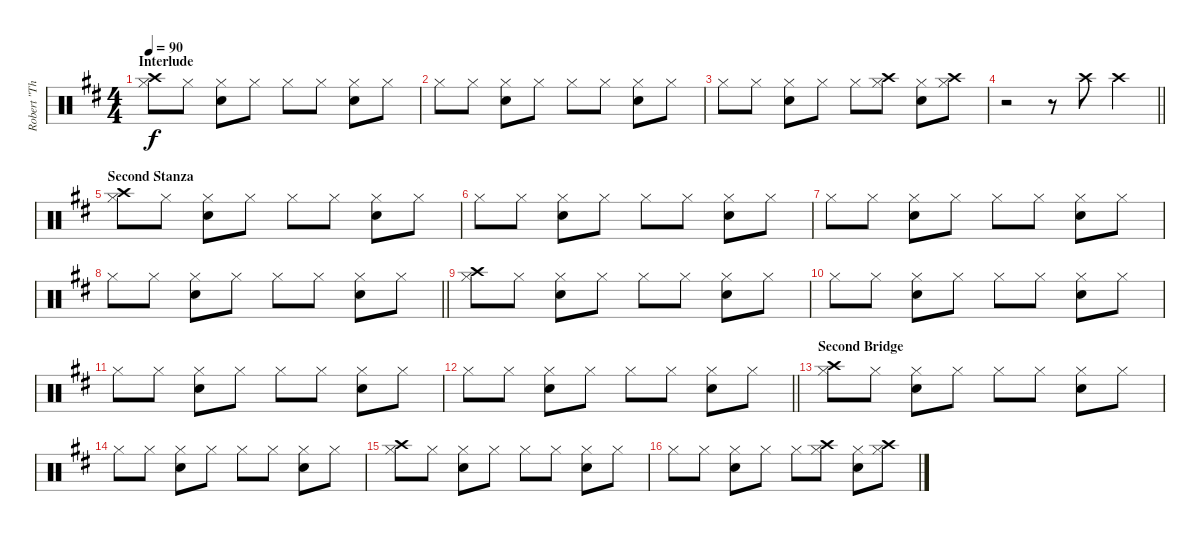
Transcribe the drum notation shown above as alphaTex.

\track ("Robert \"The Visual Timekeeper\" Sweet [Dr" "Robert \"Th") {instrument percussion}
\staff {score}
\articulation defaults
\ts (4 4)
\section ("" "Interlude")
\tempo 90
\clef neutral
\ks d
("Crash high (hit)" "Hi-Hat (closed)").8{dy f} "Hi-Hat (closed)".8 ("Hi-Hat (closed)" "Snare (hit) 2").8 "Hi-Hat (closed)".8 "Hi-Hat (closed)".8 "Hi-Hat (closed)".8 ("Hi-Hat (closed)" "Snare (hit) 2").8 "Hi-Hat (closed)".8 |
"Hi-Hat (closed)".8 "Hi-Hat (closed)".8 ("Hi-Hat (closed)" "Snare (hit) 2").8 "Hi-Hat (closed)".8 "Hi-Hat (closed)".8 "Hi-Hat (closed)".8 ("Hi-Hat (closed)" "Snare (hit) 2").8 "Hi-Hat (closed)".8 |
"Hi-Hat (closed)".8 "Hi-Hat (closed)".8 ("Hi-Hat (closed)" "Snare (hit) 2").8 "Hi-Hat (closed)".8 "Hi-Hat (closed)".8 ("Hi-Hat (closed)" "Crash high (hit)").8 ("Hi-Hat (closed)" "Snare (hit) 2").8 ("Hi-Hat (closed)" "Crash high (hit)").8 |
\barLineRight lightlight
r.2 r.8 "Crash high (hit)".8 "Crash high (hit)".4 |
\section ("" "Second Stanza")
("Hi-Hat (closed)" "Crash high (hit)").8 "Hi-Hat (closed)".8 ("Hi-Hat (closed)" "Snare (hit) 2").8 "Hi-Hat (closed)".8 "Hi-Hat (closed)".8 "Hi-Hat (closed)".8 ("Hi-Hat (closed)" "Snare (hit) 2").8 "Hi-Hat (closed)".8 |
"Hi-Hat (closed)".8 "Hi-Hat (closed)".8 ("Hi-Hat (closed)" "Snare (hit) 2").8 "Hi-Hat (closed)".8 "Hi-Hat (closed)".8 "Hi-Hat (closed)".8 ("Hi-Hat (closed)" "Snare (hit) 2").8 "Hi-Hat (closed)".8 |
"Hi-Hat (closed)".8 "Hi-Hat (closed)".8 ("Hi-Hat (closed)" "Snare (hit) 2").8 "Hi-Hat (closed)".8 "Hi-Hat (closed)".8 "Hi-Hat (closed)".8 ("Hi-Hat (closed)" "Snare (hit) 2").8 "Hi-Hat (closed)".8 |
\barLineRight lightlight "Hi-Hat (closed)".8 "Hi-Hat (closed)".8
("Hi-Hat (closed)" "Snare (hit) 2").8 "Hi-Hat (closed)".8 "Hi-Hat (closed)".8 "Hi-Hat (closed)".8 ("Hi-Hat (closed)" "Snare (hit) 2").8 "Hi-Hat (closed)".8 |
("Hi-Hat (closed)" "Crash high (hit)").8 "Hi-Hat (closed)".8 ("Hi-Hat (closed)" "Snare (hit) 2").8 "Hi-Hat (closed)".8 "Hi-Hat (closed)".8 "Hi-Hat (closed)".8 ("Hi-Hat (closed)" "Snare (hit) 2").8 "Hi-Hat (closed)".8 |
"Hi-Hat (closed)".8 "Hi-Hat (closed)".8 ("Hi-Hat (closed)" "Snare (hit) 2").8 "Hi-Hat (closed)".8 "Hi-Hat (closed)".8 "Hi-Hat (closed)".8 ("Hi-Hat (closed)" "Snare (hit) 2").8 "Hi-Hat (closed)".8 |
"Hi-Hat (closed)".8 "Hi-Hat (closed)".8 ("Hi-Hat (closed)" "Snare (hit) 2").8 "Hi-Hat (closed)".8 "Hi-Hat (closed)".8 "Hi-Hat (closed)".8 ("Hi-Hat (closed)" "Snare (hit) 2").8 "Hi-Hat (closed)".8 |
\barLineRight lightlight "Hi-Hat (closed)".8 "Hi-Hat (closed)".8
("Hi-Hat (closed)" "Snare (hit) 2").8 "Hi-Hat (closed)".8 "Hi-Hat (closed)".8 "Hi-Hat (closed)".8 ("Hi-Hat (closed)" "Snare (hit) 2").8 "Hi-Hat (closed)".8 |
\section ("" "Second Bridge")
("Crash high (hit)" "Hi-Hat (closed)").8 "Hi-Hat (closed)".8 ("Hi-Hat (closed)" "Snare (hit) 2").8 "Hi-Hat (closed)".8 "Hi-Hat (closed)".8 "Hi-Hat (closed)".8 ("Hi-Hat (closed)" "Snare (hit) 2").8 "Hi-Hat (closed)".8 |
"Hi-Hat (closed)".8 "Hi-Hat (closed)".8 ("Hi-Hat (closed)" "Snare (hit) 2").8 "Hi-Hat (closed)".8 "Hi-Hat (closed)".8 "Hi-Hat (closed)".8 ("Hi-Hat (closed)" "Snare (hit) 2").8 "Hi-Hat (closed)".8 |
("Hi-Hat (closed)" "Crash high (hit)").8 "Hi-Hat (closed)".8 ("Hi-Hat (closed)" "Snare (hit) 2").8 "Hi-Hat (closed)".8 "Hi-Hat (closed)".8 "Hi-Hat (closed)".8 ("Hi-Hat (closed)" "Snare (hit) 2").8 "Hi-Hat (closed)".8 |
"Hi-Hat (closed)".8 "Hi-Hat (closed)".8 ("Hi-Hat (closed)" "Snare (hit) 2").8 "Hi-Hat (closed)".8 "Hi-Hat (closed)".8 ("Hi-Hat (closed)" "Crash high (hit)").8 ("Hi-Hat (closed)" "Snare (hit) 2").8 ("Hi-Hat (closed)" "Crash high (hit)").8
